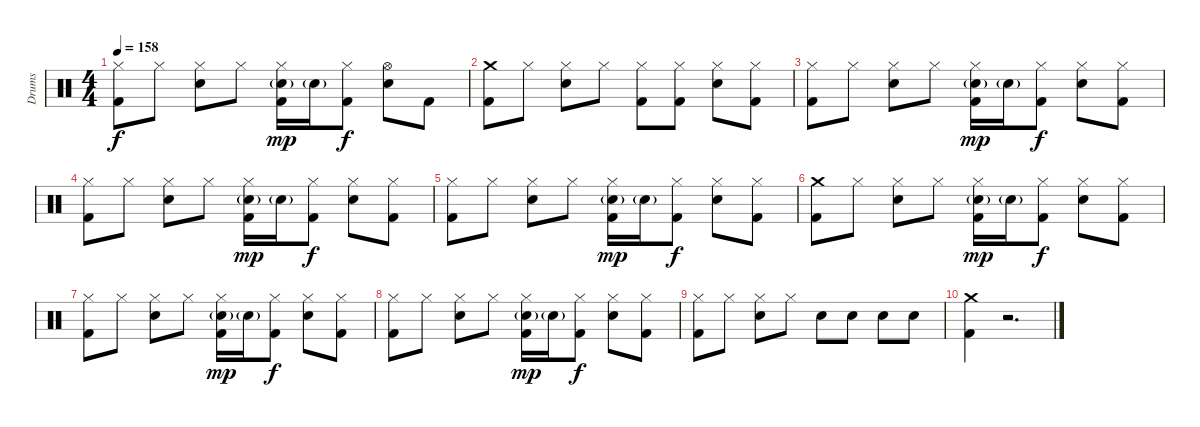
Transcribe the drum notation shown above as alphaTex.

\track ("Drums" "Drums") {instrument percussion}
\staff {score}
\articulation defaults
\ts (4 4)
\tempo 158
\clef neutral
\ks c
("Hi-Hat (closed)" "Kick (hit) 2").8{dy f} "Hi-Hat (closed)".8 ("Hi-Hat (closed)" "Electric Snare (hit)").8 "Hi-Hat (closed)".8 ("Hi-Hat (closed)" "Electric Snare (hit)"{g} "Kick (hit) 2").16{dy mp} "Electric Snare (hit)"{g}.16 ("Hi-Hat (closed)" "Kick (hit) 2").8{dy f} ("Hi-Hat (open)" "Electric Snare (hit)").8 "Kick (hit) 2".8 |
("Crash medium (hit)" "Kick (hit) 2").8 "Hi-Hat (closed)".8 ("Hi-Hat (closed)" "Electric Snare (hit)").8 "Hi-Hat (closed)".8 ("Hi-Hat (closed)" "Kick (hit) 2").8 ("Hi-Hat (closed)" "Kick (hit) 2").8 ("Hi-Hat (closed)" "Electric Snare (hit)").8 ("Hi-Hat (closed)" "Kick (hit) 2").8 |
("Hi-Hat (closed)" "Kick (hit) 2").8 "Hi-Hat (closed)".8 ("Hi-Hat (closed)" "Electric Snare (hit)").8 "Hi-Hat (closed)".8 ("Hi-Hat (closed)" "Electric Snare (hit)"{g} "Kick (hit) 2").16{dy mp} "Electric Snare (hit)"{g}.16 ("Hi-Hat (closed)" "Kick (hit) 2").8{dy f} ("Hi-Hat (closed)" "Electric Snare (hit)").8 ("Hi-Hat (closed)" "Kick (hit) 2").8 |
("Hi-Hat (closed)" "Kick (hit) 2").8 "Hi-Hat (closed)".8 ("Hi-Hat (closed)" "Electric Snare (hit)").8 "Hi-Hat (closed)".8 ("Hi-Hat (closed)" "Electric Snare (hit)"{g} "Kick (hit) 2").16{dy mp} "Electric Snare (hit)"{g}.16 ("Hi-Hat (closed)" "Kick (hit) 2").8{dy f} ("Hi-Hat (closed)" "Electric Snare (hit)").8 ("Hi-Hat (closed)" "Kick (hit) 2").8 |
("Hi-Hat (closed)" "Kick (hit) 2").8 "Hi-Hat (closed)".8 ("Hi-Hat (closed)" "Electric Snare (hit)").8 "Hi-Hat (closed)".8 ("Hi-Hat (closed)" "Electric Snare (hit)"{g} "Kick (hit) 2").16{dy mp} "Electric Snare (hit)"{g}.16 ("Hi-Hat (closed)" "Kick (hit) 2").8{dy f} ("Hi-Hat (closed)" "Electric Snare (hit)").8 ("Hi-Hat (closed)" "Kick (hit) 2").8 |
("Crash medium (hit)" "Kick (hit) 2").8 "Hi-Hat (closed)".8 ("Hi-Hat (closed)" "Electric Snare (hit)").8 "Hi-Hat (closed)".8 ("Hi-Hat (closed)" "Electric Snare (hit)"{g} "Kick (hit) 2").16{dy mp} "Electric Snare (hit)"{g}.16 ("Hi-Hat (closed)" "Kick (hit) 2").8{dy f} ("Hi-Hat (closed)" "Electric Snare (hit)").8 ("Hi-Hat (closed)" "Kick (hit) 2").8 |
("Hi-Hat (closed)" "Kick (hit) 2").8 "Hi-Hat (closed)".8 ("Hi-Hat (closed)" "Electric Snare (hit)").8 "Hi-Hat (closed)".8 ("Hi-Hat (closed)" "Electric Snare (hit)"{g} "Kick (hit) 2").16{dy mp} "Electric Snare (hit)"{g}.16 ("Hi-Hat (closed)" "Kick (hit) 2").8{dy f} ("Hi-Hat (closed)" "Electric Snare (hit)").8 ("Hi-Hat (closed)" "Kick (hit) 2").8 |
("Hi-Hat (closed)" "Kick (hit) 2").8 "Hi-Hat (closed)".8 ("Hi-Hat (closed)" "Electric Snare (hit)").8 "Hi-Hat (closed)".8 ("Hi-Hat (closed)" "Electric Snare (hit)"{g} "Kick (hit) 2").16{dy mp} "Electric Snare (hit)"{g}.16 ("Hi-Hat (closed)" "Kick (hit) 2").8{dy f} ("Hi-Hat (closed)" "Electric Snare (hit)").8 ("Hi-Hat (closed)" "Kick (hit) 2").8 |
("Hi-Hat (closed)" "Kick (hit) 2").8 "Hi-Hat (closed)".8 ("Hi-Hat (closed)" "Electric Snare (hit)").8 "Hi-Hat (closed)".8 "Electric Snare (hit)".8 "Electric Snare (hit)".8 "Electric Snare (hit)".8 "Electric Snare (hit)".8 |
("Crash medium (hit)" "Kick (hit) 2").4 r.2{d volume 2}
